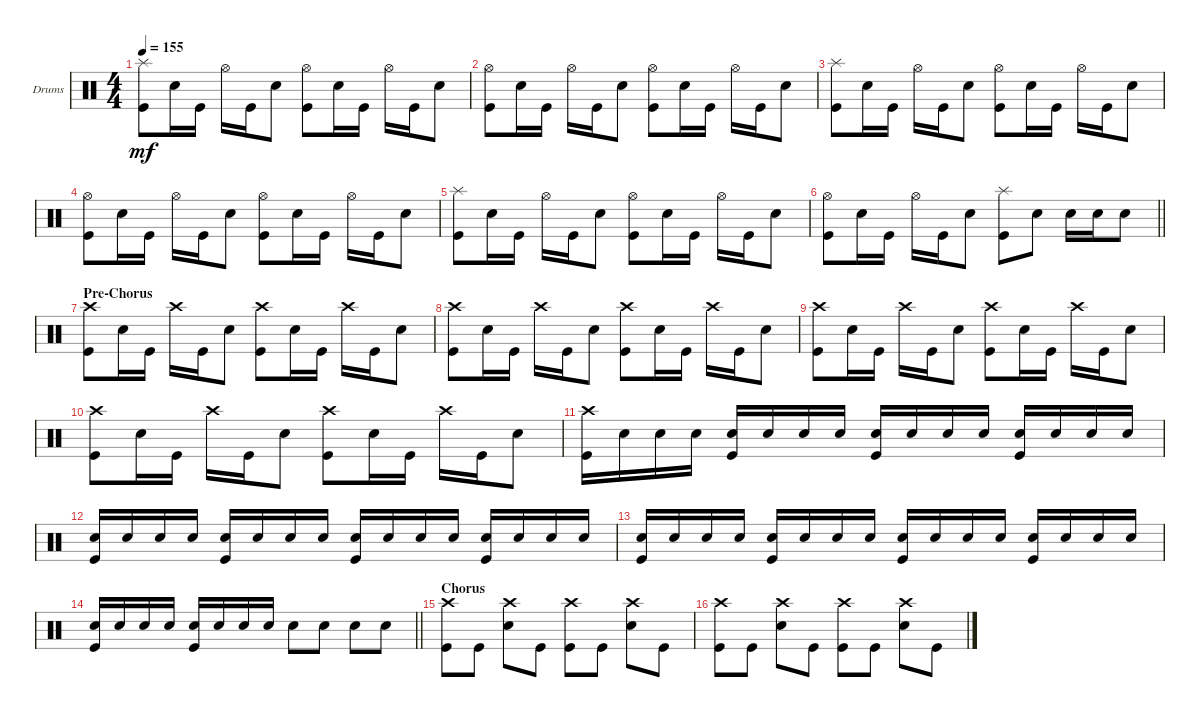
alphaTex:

\defaultSystemsLayout 4
\bracketExtendMode groupsimilarinstruments
\firstSystemTrackNameOrientation horizontal
\otherSystemsTrackNameOrientation horizontal
\track ("Drums" "Drums") {instrument percussion}
\staff {score}
\articulation defaults
\ts (4 4)
\tempo 155
\clef neutral
\ks c
("Kick (hit)" "Splash (hit)").8{dy mf} "Snare (hit) 2".16 "Kick (hit)".16 "Hi-Hat (open)".16 "Kick (hit)".16 "Snare (hit) 2".8 ("Kick (hit)" "Hi-Hat (open)").8 "Snare (hit) 2".16 "Kick (hit)".16 "Hi-Hat (open)".16 "Kick (hit)".16 "Snare (hit) 2".8 |
("Kick (hit)" "Hi-Hat (open)").8 "Snare (hit) 2".16 "Kick (hit)".16 "Hi-Hat (open)".16 "Kick (hit)".16 "Snare (hit) 2".8 ("Kick (hit)" "Hi-Hat (open)").8 "Snare (hit) 2".16 "Kick (hit)".16 "Hi-Hat (open)".16 "Kick (hit)".16 "Snare (hit) 2".8 |
("Kick (hit)" "Splash (hit)").8 "Snare (hit) 2".16 "Kick (hit)".16 "Hi-Hat (open)".16 "Kick (hit)".16 "Snare (hit) 2".8 ("Kick (hit)" "Hi-Hat (open)").8 "Snare (hit) 2".16 "Kick (hit)".16 "Hi-Hat (open)".16 "Kick (hit)".16 "Snare (hit) 2".8 |
("Kick (hit)" "Hi-Hat (open)").8 "Snare (hit) 2".16 "Kick (hit)".16 "Hi-Hat (open)".16 "Kick (hit)".16 "Snare (hit) 2".8 ("Kick (hit)" "Hi-Hat (open)").8 "Snare (hit) 2".16 "Kick (hit)".16 "Hi-Hat (open)".16 "Kick (hit)".16 "Snare (hit) 2".8 |
("Kick (hit)" "Splash (hit)").8 "Snare (hit) 2".16 "Kick (hit)".16 "Hi-Hat (open)".16 "Kick (hit)".16 "Snare (hit) 2".8 ("Kick (hit)" "Hi-Hat (open)").8 "Snare (hit) 2".16 "Kick (hit)".16 "Hi-Hat (open)".16 "Kick (hit)".16 "Snare (hit) 2".8 |
\barLineRight lightlight
("Kick (hit)" "Hi-Hat (open)").8 "Snare (hit) 2".16 "Kick (hit)".16 "Hi-Hat (open)".16 "Kick (hit)".16 "Snare (hit) 2".8 ("Kick (hit)" "Splash (hit)").8 "Snare (hit) 2".8 "Snare (hit) 2".16 "Snare (hit) 2".16 "Snare (hit) 2".8 |
\section ("" "Pre-Chorus")
("Kick (hit)" "Crash high (hit)").8 "Snare (hit) 2".16 "Kick (hit)".16 "Crash high (hit)".16 "Kick (hit)".16 "Snare (hit) 2".8 ("Kick (hit)" "Crash high (hit)").8 "Snare (hit) 2".16 "Kick (hit)".16 "Crash high (hit)".16 "Kick (hit)".16 "Snare (hit) 2".8 |
("Kick (hit)" "Crash high (hit)").8 "Snare (hit) 2".16 "Kick (hit)".16 "Crash high (hit)".16 "Kick (hit)".16 "Snare (hit) 2".8 ("Kick (hit)" "Crash high (hit)").8 "Snare (hit) 2".16 "Kick (hit)".16 "Crash high (hit)".16 "Kick (hit)".16 "Snare (hit) 2".8 |
("Kick (hit)" "Crash high (hit)").8 "Snare (hit) 2".16 "Kick (hit)".16 "Crash high (hit)".16 "Kick (hit)".16 "Snare (hit) 2".8 ("Kick (hit)" "Crash high (hit)").8 "Snare (hit) 2".16 "Kick (hit)".16 "Crash high (hit)".16 "Kick (hit)".16 "Snare (hit) 2".8 |
("Kick (hit)" "Crash high (hit)").8 "Snare (hit) 2".16 "Kick (hit)".16 "Crash high (hit)".16 "Kick (hit)".16 "Snare (hit) 2".8 ("Kick (hit)" "Crash high (hit)").8 "Snare (hit) 2".16 "Kick (hit)".16 "Crash high (hit)".16 "Kick (hit)".16 "Snare (hit) 2".8 |
("Kick (hit)" "Crash high (hit)").16 "Snare (hit) 2".16 "Snare (hit) 2".16 "Snare (hit) 2".16 ("Kick (hit)" "Snare (hit) 2").16 "Snare (hit) 2".16 "Snare (hit) 2".16 "Snare (hit) 2".16 ("Kick (hit)" "Snare (hit) 2").16 "Snare (hit) 2".16 "Snare (hit) 2".16 "Snare (hit) 2".16 ("Kick (hit)" "Snare (hit) 2").16 "Snare (hit) 2".16 "Snare (hit) 2".16 "Snare (hit) 2".16 |
("Kick (hit)" "Snare (hit) 2").16 "Snare (hit) 2".16 "Snare (hit) 2".16 "Snare (hit) 2".16 ("Kick (hit)" "Snare (hit) 2").16 "Snare (hit) 2".16 "Snare (hit) 2".16 "Snare (hit) 2".16 ("Kick (hit)" "Snare (hit) 2").16 "Snare (hit) 2".16 "Snare (hit) 2".16 "Snare (hit) 2".16 ("Kick (hit)" "Snare (hit) 2").16 "Snare (hit) 2".16 "Snare (hit) 2".16 "Snare (hit) 2".16 |
("Kick (hit)" "Snare (hit) 2").16 "Snare (hit) 2".16 "Snare (hit) 2".16 "Snare (hit) 2".16 ("Kick (hit)" "Snare (hit) 2").16 "Snare (hit) 2".16 "Snare (hit) 2".16 "Snare (hit) 2".16 ("Kick (hit)" "Snare (hit) 2").16 "Snare (hit) 2".16 "Snare (hit) 2".16 "Snare (hit) 2".16 ("Kick (hit)" "Snare (hit) 2").16 "Snare (hit) 2".16 "Snare (hit) 2".16 "Snare (hit) 2".16 |
\barLineRight lightlight
("Kick (hit)" "Snare (hit) 2").16 "Snare (hit) 2".16 "Snare (hit) 2".16 "Snare (hit) 2".16 ("Kick (hit)" "Snare (hit) 2").16 "Snare (hit) 2".16 "Snare (hit) 2".16 "Snare (hit) 2".16 "Snare (hit) 2".8 "Snare (hit) 2".8 "Snare (hit) 2".8 "Snare (hit) 2".8 |
\section ("" "Chorus")
("Kick (hit)" "Crash high (hit)").8 "Kick (hit)".8 ("Snare (hit) 2" "Crash high (hit)").8 "Kick (hit)".8 ("Kick (hit)" "Crash high (hit)").8 "Kick (hit)".8 ("Snare (hit) 2" "Crash high (hit)").8 "Kick (hit)".8 |
("Kick (hit)" "Crash high (hit)").8 "Kick (hit)".8 ("Snare (hit) 2" "Crash high (hit)").8 "Kick (hit)".8 ("Kick (hit)" "Crash high (hit)").8 "Kick (hit)".8 ("Snare (hit) 2" "Crash high (hit)").8 "Kick (hit)".8
